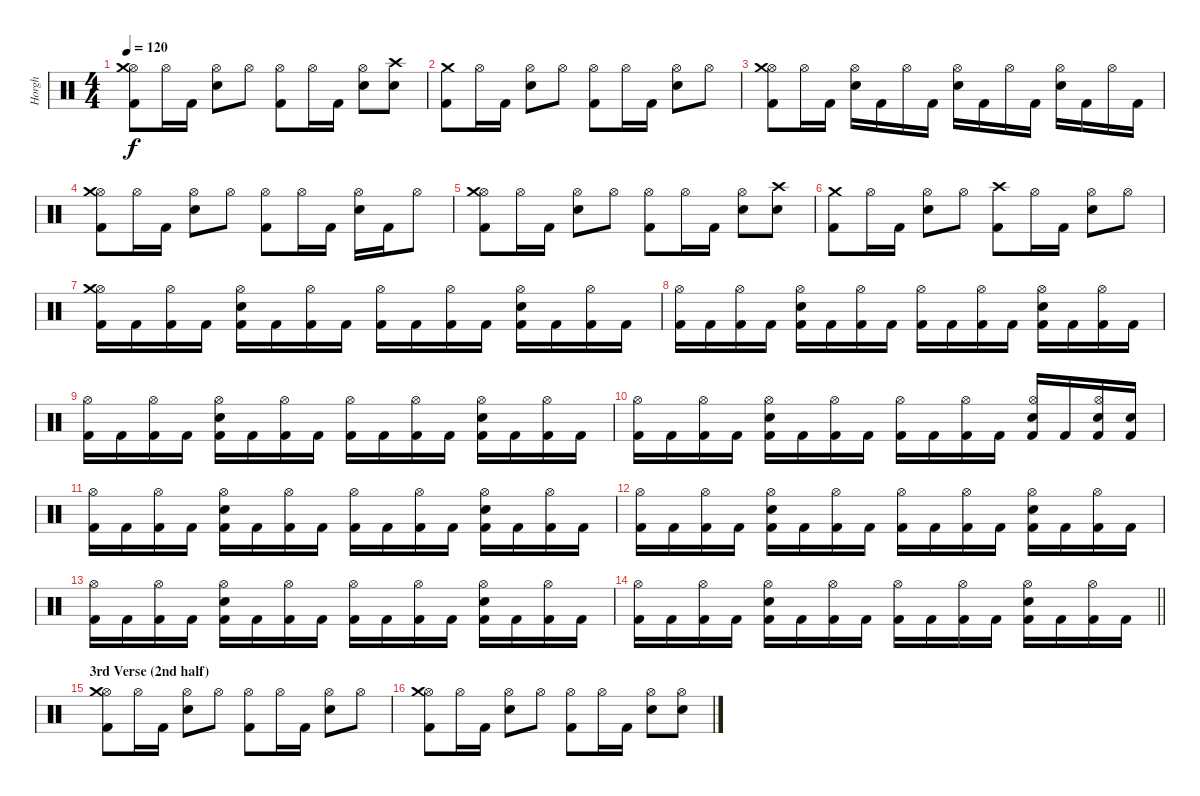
\track ("Horgh" "Horgh") {instrument percussion}
\staff {score}
\articulation defaults
\ts (4 4)
\tempo 120
\clef neutral
\ks c
("Kick (hit) 2" "Hi-Hat (open)" "Crash medium (hit)").8{dy f} "Hi-Hat (open)".16 "Kick (hit) 2".16 ("Electric Snare (hit)" "Hi-Hat (open)").8 "Hi-Hat (open)".8 ("Kick (hit) 2" "Hi-Hat (open)").8 "Hi-Hat (open)".16 "Kick (hit) 2".16 ("Electric Snare (hit)" "Hi-Hat (open)").8 ("Electric Snare (hit)" "Crash high (hit)").8 |
("Kick (hit) 2" "Crash medium (hit)").8 "Hi-Hat (open)".16 "Kick (hit) 2".16 ("Electric Snare (hit)" "Hi-Hat (open)").8 "Hi-Hat (open)".8 ("Kick (hit) 2" "Hi-Hat (open)").8 "Hi-Hat (open)".16 "Kick (hit) 2".16 ("Electric Snare (hit)" "Hi-Hat (open)").8 "Hi-Hat (open)".8 |
("Kick (hit) 2" "Hi-Hat (open)" "Crash medium (hit)").8 "Hi-Hat (open)".16 "Kick (hit) 2".16 ("Electric Snare (hit)" "Hi-Hat (open)").16 "Kick (hit) 2".16 "Hi-Hat (open)".16 "Kick (hit) 2".16 ("Electric Snare (hit)" "Hi-Hat (open)").16 "Kick (hit) 2".16 "Hi-Hat (open)".16 "Kick (hit) 2".16 ("Electric Snare (hit)" "Hi-Hat (open)").16 "Kick (hit) 2".16 "Hi-Hat (open)".16 "Kick (hit) 2".16 |
("Kick (hit) 2" "Hi-Hat (open)" "Crash medium (hit)").8 "Hi-Hat (open)".16 "Kick (hit) 2".16 ("Electric Snare (hit)" "Hi-Hat (open)").8 "Hi-Hat (open)".8 ("Kick (hit) 2" "Hi-Hat (open)").8 "Hi-Hat (open)".16 "Kick (hit) 2".16 ("Electric Snare (hit)" "Hi-Hat (open)").16 "Kick (hit) 2".16 "Hi-Hat (open)".8 |
("Kick (hit) 2" "Hi-Hat (open)" "Crash medium (hit)").8 "Hi-Hat (open)".16 "Kick (hit) 2".16 ("Electric Snare (hit)" "Hi-Hat (open)").8 "Hi-Hat (open)".8 ("Kick (hit) 2" "Hi-Hat (open)").8 "Hi-Hat (open)".16 "Kick (hit) 2".16 ("Electric Snare (hit)" "Hi-Hat (open)").8 ("Electric Snare (hit)" "Crash high (hit)").8 |
("Kick (hit) 2" "Crash medium (hit)").8 "Hi-Hat (open)".16 "Kick (hit) 2".16 ("Electric Snare (hit)" "Hi-Hat (open)").8 "Hi-Hat (open)".8 ("Kick (hit) 2" "Crash high (hit)").8 "Hi-Hat (open)".16 "Kick (hit) 2".16 ("Electric Snare (hit)" "Hi-Hat (open)").8 "Hi-Hat (open)".8 |
("Kick (hit) 2" "Hi-Hat (open)" "Crash medium (hit)").16 "Kick (hit) 2".16 ("Kick (hit) 2" "Hi-Hat (open)").16 "Kick (hit) 2".16 ("Kick (hit) 2" "Electric Snare (hit)" "Hi-Hat (open)").16 "Kick (hit) 2".16 ("Kick (hit) 2" "Hi-Hat (open)").16 "Kick (hit) 2".16 ("Kick (hit) 2" "Hi-Hat (open)").16 "Kick (hit) 2".16 ("Kick (hit) 2" "Hi-Hat (open)").16 "Kick (hit) 2".16 ("Kick (hit) 2" "Electric Snare (hit)" "Hi-Hat (open)").16 "Kick (hit) 2".16 ("Kick (hit) 2" "Hi-Hat (open)").16 "Kick (hit) 2".16 |
("Kick (hit) 2" "Hi-Hat (open)").16 "Kick (hit) 2".16 ("Kick (hit) 2" "Hi-Hat (open)").16 "Kick (hit) 2".16 ("Kick (hit) 2" "Electric Snare (hit)" "Hi-Hat (open)").16 "Kick (hit) 2".16 ("Kick (hit) 2" "Hi-Hat (open)").16 "Kick (hit) 2".16 ("Kick (hit) 2" "Hi-Hat (open)").16 "Kick (hit) 2".16 ("Kick (hit) 2" "Hi-Hat (open)").16 "Kick (hit) 2".16 ("Kick (hit) 2" "Electric Snare (hit)" "Hi-Hat (open)").16 "Kick (hit) 2".16 ("Kick (hit) 2" "Hi-Hat (open)").16 "Kick (hit) 2".16 |
("Kick (hit) 2" "Hi-Hat (open)").16 "Kick (hit) 2".16 ("Kick (hit) 2" "Hi-Hat (open)").16 "Kick (hit) 2".16 ("Kick (hit) 2" "Electric Snare (hit)" "Hi-Hat (open)").16 "Kick (hit) 2".16 ("Kick (hit) 2" "Hi-Hat (open)").16 "Kick (hit) 2".16 ("Kick (hit) 2" "Hi-Hat (open)").16 "Kick (hit) 2".16 ("Kick (hit) 2" "Hi-Hat (open)").16 "Kick (hit) 2".16 ("Kick (hit) 2" "Electric Snare (hit)" "Hi-Hat (open)").16 "Kick (hit) 2".16 ("Kick (hit) 2" "Hi-Hat (open)").16 "Kick (hit) 2".16 |
("Kick (hit) 2" "Hi-Hat (open)").16 "Kick (hit) 2".16 ("Kick (hit) 2" "Hi-Hat (open)").16 "Kick (hit) 2".16 ("Kick (hit) 2" "Electric Snare (hit)" "Hi-Hat (open)").16 "Kick (hit) 2".16 ("Kick (hit) 2" "Hi-Hat (open)").16 "Kick (hit) 2".16 ("Kick (hit) 2" "Hi-Hat (open)").16 "Kick (hit) 2".16 ("Kick (hit) 2" "Hi-Hat (open)").16 "Kick (hit) 2".16 ("Kick (hit) 2" "Electric Snare (hit)" "Hi-Hat (open)").16 "Kick (hit) 2".16 ("Kick (hit) 2" "Electric Snare (hit)" "Hi-Hat (open)").16 ("Kick (hit) 2" "Electric Snare (hit)").16 |
("Kick (hit) 2" "Hi-Hat (open)").16 "Kick (hit) 2".16 ("Kick (hit) 2" "Hi-Hat (open)").16 "Kick (hit) 2".16 ("Kick (hit) 2" "Electric Snare (hit)" "Hi-Hat (open)").16 "Kick (hit) 2".16 ("Kick (hit) 2" "Hi-Hat (open)").16 "Kick (hit) 2".16 ("Kick (hit) 2" "Hi-Hat (open)").16 "Kick (hit) 2".16 ("Kick (hit) 2" "Hi-Hat (open)").16 "Kick (hit) 2".16 ("Kick (hit) 2" "Electric Snare (hit)" "Hi-Hat (open)").16 "Kick (hit) 2".16 ("Kick (hit) 2" "Hi-Hat (open)").16 "Kick (hit) 2".16 |
("Kick (hit) 2" "Hi-Hat (open)").16 "Kick (hit) 2".16 ("Kick (hit) 2" "Hi-Hat (open)").16 "Kick (hit) 2".16 ("Kick (hit) 2" "Electric Snare (hit)" "Hi-Hat (open)").16 "Kick (hit) 2".16 ("Kick (hit) 2" "Hi-Hat (open)").16 "Kick (hit) 2".16 ("Kick (hit) 2" "Hi-Hat (open)").16 "Kick (hit) 2".16 ("Kick (hit) 2" "Hi-Hat (open)").16 "Kick (hit) 2".16 ("Kick (hit) 2" "Electric Snare (hit)" "Hi-Hat (open)").16 "Kick (hit) 2".16 ("Kick (hit) 2" "Hi-Hat (open)").16 "Kick (hit) 2".16 |
("Kick (hit) 2" "Hi-Hat (open)").16 "Kick (hit) 2".16 ("Kick (hit) 2" "Hi-Hat (open)").16 "Kick (hit) 2".16 ("Kick (hit) 2" "Electric Snare (hit)" "Hi-Hat (open)").16 "Kick (hit) 2".16 ("Kick (hit) 2" "Hi-Hat (open)").16 "Kick (hit) 2".16 ("Kick (hit) 2" "Hi-Hat (open)").16 "Kick (hit) 2".16 ("Kick (hit) 2" "Hi-Hat (open)").16 "Kick (hit) 2".16 ("Kick (hit) 2" "Electric Snare (hit)" "Hi-Hat (open)").16 "Kick (hit) 2".16 ("Kick (hit) 2" "Hi-Hat (open)").16 "Kick (hit) 2".16 |
\barLineRight lightlight
("Kick (hit) 2" "Hi-Hat (open)").16 "Kick (hit) 2".16 ("Kick (hit) 2" "Hi-Hat (open)").16 "Kick (hit) 2".16 ("Kick (hit) 2" "Electric Snare (hit)" "Hi-Hat (open)").16 "Kick (hit) 2".16 ("Kick (hit) 2" "Hi-Hat (open)").16 "Kick (hit) 2".16 ("Kick (hit) 2" "Hi-Hat (open)").16 "Kick (hit) 2".16 ("Kick (hit) 2" "Hi-Hat (open)").16 "Kick (hit) 2".16 ("Kick (hit) 2" "Electric Snare (hit)" "Hi-Hat (open)").16 "Kick (hit) 2".16 ("Kick (hit) 2" "Hi-Hat (open)").16 "Kick (hit) 2".16 |
\section ("" "3rd Verse (2nd half)")
("Kick (hit) 2" "Hi-Hat (open)" "Crash medium (hit)").8 "Hi-Hat (open)".16 "Kick (hit) 2".16 ("Electric Snare (hit)" "Hi-Hat (open)").8 "Hi-Hat (open)".8 ("Kick (hit) 2" "Hi-Hat (open)").8 "Hi-Hat (open)".16 "Kick (hit) 2".16 ("Electric Snare (hit)" "Hi-Hat (open)").8 "Hi-Hat (open)".8 |
("Kick (hit) 2" "Hi-Hat (open)" "Crash medium (hit)").8 "Hi-Hat (open)".16 "Kick (hit) 2".16 ("Electric Snare (hit)" "Hi-Hat (open)").8 "Hi-Hat (open)".8 ("Kick (hit) 2" "Hi-Hat (open)").8 "Hi-Hat (open)".16 "Kick (hit) 2".16 ("Electric Snare (hit)" "Hi-Hat (open)").8 ("Electric Snare (hit)" "Hi-Hat (open)").8
